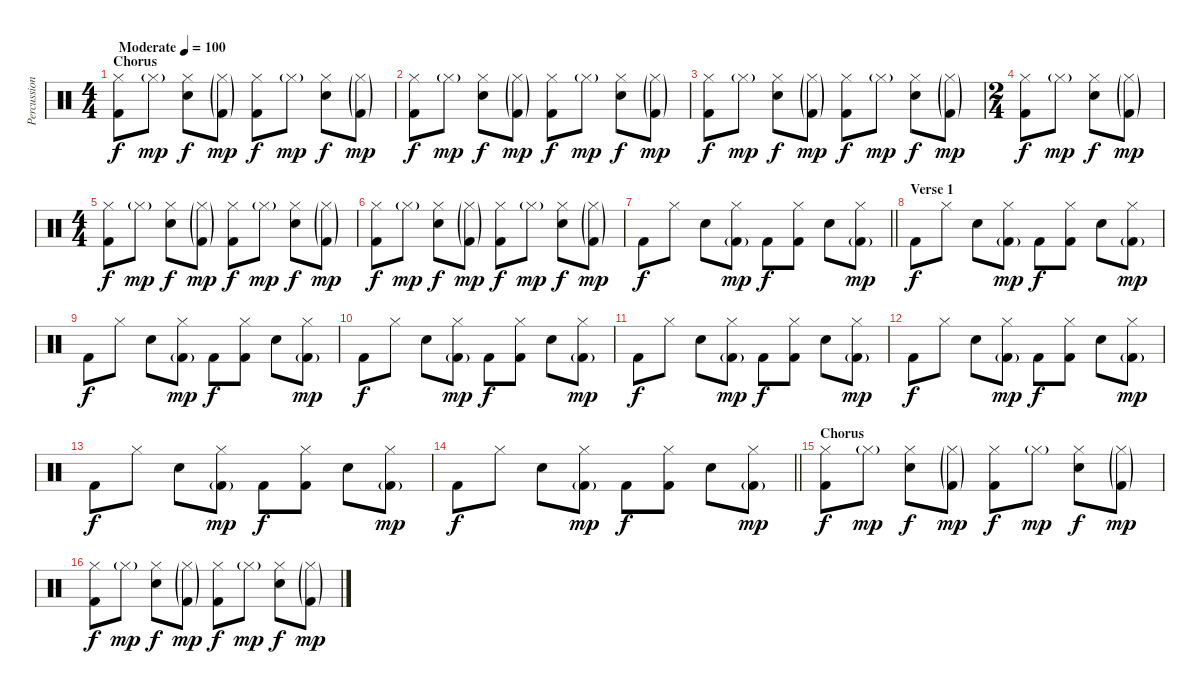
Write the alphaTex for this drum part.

\track ("Percussion" "Percussion") {instrument percussion}
\staff {score}
\articulation defaults
\ts (4 4)
\section ("" "Chorus")
\tempo (100 "Moderate")
\clef neutral
\ks c
("Hi-Hat (closed)" "Kick (hit) 2").8{dy f} "Hi-Hat (closed)"{g}.8{dy mp} ("Hi-Hat (closed)" "Snare (hit) 2").8{dy f} ("Hi-Hat (closed)"{g} "Kick (hit) 2"{g}).8{dy mp} ("Hi-Hat (closed)" "Kick (hit) 2").8{dy f} "Hi-Hat (closed)"{g}.8{dy mp} ("Hi-Hat (closed)" "Snare (hit) 2").8{dy f} ("Hi-Hat (closed)"{g} "Kick (hit) 2"{g}).8{dy mp} |
("Hi-Hat (closed)" "Kick (hit) 2").8{dy f} "Hi-Hat (closed)"{g}.8{dy mp} ("Hi-Hat (closed)" "Snare (hit) 2").8{dy f} ("Hi-Hat (closed)"{g} "Kick (hit) 2"{g}).8{dy mp} ("Hi-Hat (closed)" "Kick (hit) 2").8{dy f} "Hi-Hat (closed)"{g}.8{dy mp} ("Hi-Hat (closed)" "Snare (hit) 2").8{dy f} ("Hi-Hat (closed)"{g} "Kick (hit) 2"{g}).8{dy mp} |
("Hi-Hat (closed)" "Kick (hit) 2").8{dy f} "Hi-Hat (closed)"{g}.8{dy mp} ("Hi-Hat (closed)" "Snare (hit) 2").8{dy f} ("Hi-Hat (closed)"{g} "Kick (hit) 2"{g}).8{dy mp} ("Hi-Hat (closed)" "Kick (hit) 2").8{dy f} "Hi-Hat (closed)"{g}.8{dy mp} ("Hi-Hat (closed)" "Snare (hit) 2").8{dy f} ("Hi-Hat (closed)"{g} "Kick (hit) 2"{g}).8{dy mp} |
\ts (2 4)
("Hi-Hat (closed)" "Kick (hit) 2").8{dy f} "Hi-Hat (closed)"{g}.8{dy mp} ("Hi-Hat (closed)" "Snare (hit) 2").8{dy f} ("Hi-Hat (closed)"{g} "Kick (hit) 2"{g}).8{dy mp} |
\ts (4 4)
("Hi-Hat (closed)" "Kick (hit) 2").8{dy f} "Hi-Hat (closed)"{g}.8{dy mp} ("Hi-Hat (closed)" "Snare (hit) 2").8{dy f} ("Hi-Hat (closed)"{g} "Kick (hit) 2"{g}).8{dy mp} ("Hi-Hat (closed)" "Kick (hit) 2").8{dy f} "Hi-Hat (closed)"{g}.8{dy mp} ("Hi-Hat (closed)" "Snare (hit) 2").8{dy f} ("Hi-Hat (closed)"{g} "Kick (hit) 2"{g}).8{dy mp} |
("Hi-Hat (closed)" "Kick (hit) 2").8{dy f} "Hi-Hat (closed)"{g}.8{dy mp} ("Hi-Hat (closed)" "Snare (hit) 2").8{dy f} ("Hi-Hat (closed)"{g} "Kick (hit) 2"{g}).8{dy mp} ("Hi-Hat (closed)" "Kick (hit) 2").8{dy f} "Hi-Hat (closed)"{g}.8{dy mp} ("Hi-Hat (closed)" "Snare (hit) 2").8{dy f} ("Hi-Hat (closed)"{g} "Kick (hit) 2"{g}).8{dy mp} |
\barLineRight lightlight "Kick (hit) 2".8{dy f} "Hi-Hat (closed)".8 "Snare (hit) 2".8
("Hi-Hat (closed)" "Kick (hit) 2"{g}).8{dy mp} "Kick (hit) 2".8{dy f} ("Hi-Hat (closed)" "Kick (hit) 2").8 "Snare (hit) 2".8 ("Hi-Hat (closed)" "Kick (hit) 2"{g}).8{dy mp} |
\section ("" "Verse 1")
"Kick (hit) 2".8{dy f} "Hi-Hat (closed)".8 "Snare (hit) 2".8 ("Hi-Hat (closed)" "Kick (hit) 2"{g}).8{dy mp} "Kick (hit) 2".8{dy f} ("Hi-Hat (closed)" "Kick (hit) 2").8 "Snare (hit) 2".8 ("Hi-Hat (closed)" "Kick (hit) 2"{g}).8{dy mp} |
"Kick (hit) 2".8{dy f} "Hi-Hat (closed)".8 "Snare (hit) 2".8 ("Hi-Hat (closed)" "Kick (hit) 2"{g}).8{dy mp} "Kick (hit) 2".8{dy f} ("Hi-Hat (closed)" "Kick (hit) 2").8 "Snare (hit) 2".8 ("Hi-Hat (closed)" "Kick (hit) 2"{g}).8{dy mp} |
"Kick (hit) 2".8{dy f} "Hi-Hat (closed)".8 "Snare (hit) 2".8 ("Hi-Hat (closed)" "Kick (hit) 2"{g}).8{dy mp} "Kick (hit) 2".8{dy f} ("Hi-Hat (closed)" "Kick (hit) 2").8 "Snare (hit) 2".8 ("Hi-Hat (closed)" "Kick (hit) 2"{g}).8{dy mp} |
"Kick (hit) 2".8{dy f} "Hi-Hat (closed)".8 "Snare (hit) 2".8 ("Hi-Hat (closed)" "Kick (hit) 2"{g}).8{dy mp} "Kick (hit) 2".8{dy f} ("Hi-Hat (closed)" "Kick (hit) 2").8 "Snare (hit) 2".8 ("Hi-Hat (closed)" "Kick (hit) 2"{g}).8{dy mp} |
"Kick (hit) 2".8{dy f} "Hi-Hat (closed)".8 "Snare (hit) 2".8 ("Hi-Hat (closed)" "Kick (hit) 2"{g}).8{dy mp} "Kick (hit) 2".8{dy f} ("Hi-Hat (closed)" "Kick (hit) 2").8 "Snare (hit) 2".8 ("Hi-Hat (closed)" "Kick (hit) 2"{g}).8{dy mp} |
"Kick (hit) 2".8{dy f} "Hi-Hat (closed)".8 "Snare (hit) 2".8 ("Hi-Hat (closed)" "Kick (hit) 2"{g}).8{dy mp} "Kick (hit) 2".8{dy f} ("Hi-Hat (closed)" "Kick (hit) 2").8 "Snare (hit) 2".8 ("Hi-Hat (closed)" "Kick (hit) 2"{g}).8{dy mp} |
\barLineRight lightlight "Kick (hit) 2".8{dy f} "Hi-Hat (closed)".8 "Snare (hit) 2".8
("Hi-Hat (closed)" "Kick (hit) 2"{g}).8{dy mp} "Kick (hit) 2".8{dy f} ("Hi-Hat (closed)" "Kick (hit) 2").8 "Snare (hit) 2".8 ("Hi-Hat (closed)" "Kick (hit) 2"{g}).8{dy mp} |
\section ("" "Chorus")
("Hi-Hat (closed)" "Kick (hit) 2").8{dy f} "Hi-Hat (closed)"{g}.8{dy mp} ("Hi-Hat (closed)" "Snare (hit) 2").8{dy f} ("Hi-Hat (closed)"{g} "Kick (hit) 2"{g}).8{dy mp} ("Hi-Hat (closed)" "Kick (hit) 2").8{dy f} "Hi-Hat (closed)"{g}.8{dy mp} ("Hi-Hat (closed)" "Snare (hit) 2").8{dy f} ("Hi-Hat (closed)"{g} "Kick (hit) 2"{g}).8{dy mp} |
("Hi-Hat (closed)" "Kick (hit) 2").8{dy f} "Hi-Hat (closed)"{g}.8{dy mp} ("Hi-Hat (closed)" "Snare (hit) 2").8{dy f} ("Hi-Hat (closed)"{g} "Kick (hit) 2"{g}).8{dy mp} ("Hi-Hat (closed)" "Kick (hit) 2").8{dy f} "Hi-Hat (closed)"{g}.8{dy mp} ("Hi-Hat (closed)" "Snare (hit) 2").8{dy f} ("Hi-Hat (closed)"{g} "Kick (hit) 2"{g}).8{dy mp}
